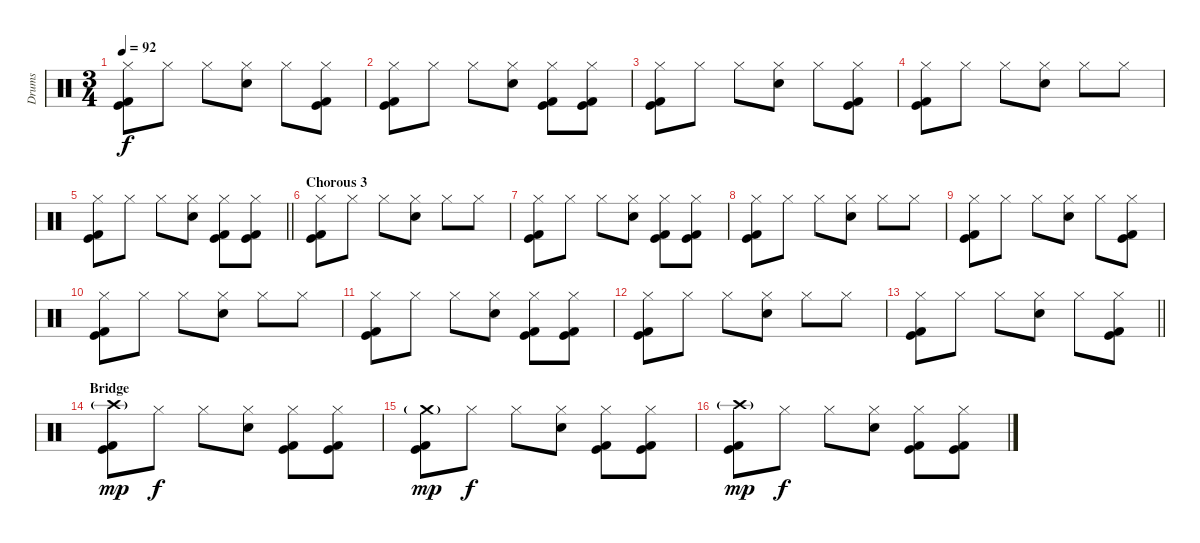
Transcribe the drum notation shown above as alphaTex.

\track ("Drums" "Drums") {instrument percussion}
\staff {score}
\articulation defaults
\ts (3 4)
\tempo 92
\clef neutral
\ks c
("Hi-Hat (closed)" "Kick (hit)" "Kick (hit) 2").8{dy f} "Hi-Hat (closed)".8 "Hi-Hat (closed)".8 ("Hi-Hat (closed)" "Electric Snare (hit)").8 "Hi-Hat (closed)".8 ("Hi-Hat (closed)" "Kick (hit)" "Kick (hit) 2").8 |
("Hi-Hat (closed)" "Kick (hit)" "Kick (hit) 2").8 "Hi-Hat (closed)".8 "Hi-Hat (closed)".8 ("Hi-Hat (closed)" "Electric Snare (hit)").8 ("Hi-Hat (closed)" "Kick (hit)" "Kick (hit) 2").8 ("Hi-Hat (closed)" "Kick (hit)" "Kick (hit) 2").8 |
("Hi-Hat (closed)" "Kick (hit)" "Kick (hit) 2").8 "Hi-Hat (closed)".8 "Hi-Hat (closed)".8 ("Hi-Hat (closed)" "Electric Snare (hit)").8 "Hi-Hat (closed)".8 ("Hi-Hat (closed)" "Kick (hit)" "Kick (hit) 2").8 |
("Hi-Hat (closed)" "Kick (hit)" "Kick (hit) 2").8 "Hi-Hat (closed)".8 "Hi-Hat (closed)".8 ("Hi-Hat (closed)" "Electric Snare (hit)").8 "Hi-Hat (closed)".8 "Hi-Hat (closed)".8 |
\barLineRight lightlight
("Hi-Hat (closed)" "Kick (hit)" "Kick (hit) 2").8 "Hi-Hat (closed)".8 "Hi-Hat (closed)".8 ("Hi-Hat (closed)" "Electric Snare (hit)").8 ("Hi-Hat (closed)" "Kick (hit)" "Kick (hit) 2").8 ("Hi-Hat (closed)" "Kick (hit)" "Kick (hit) 2").8 |
\section ("" "Chorous 3")
("Hi-Hat (closed)" "Kick (hit)" "Kick (hit) 2").8 "Hi-Hat (closed)".8 "Hi-Hat (closed)".8 ("Hi-Hat (closed)" "Electric Snare (hit)").8 "Hi-Hat (closed)".8 "Hi-Hat (closed)".8 |
("Hi-Hat (closed)" "Kick (hit)" "Kick (hit) 2").8 "Hi-Hat (closed)".8 "Hi-Hat (closed)".8 ("Hi-Hat (closed)" "Electric Snare (hit)").8 ("Hi-Hat (closed)" "Kick (hit)" "Kick (hit) 2").8 ("Hi-Hat (closed)" "Kick (hit)" "Kick (hit) 2").8 |
("Hi-Hat (closed)" "Kick (hit)" "Kick (hit) 2").8 "Hi-Hat (closed)".8 "Hi-Hat (closed)".8 ("Hi-Hat (closed)" "Electric Snare (hit)").8 "Hi-Hat (closed)".8 "Hi-Hat (closed)".8 |
("Hi-Hat (closed)" "Kick (hit)" "Kick (hit) 2").8 "Hi-Hat (closed)".8 "Hi-Hat (closed)".8 ("Hi-Hat (closed)" "Electric Snare (hit)").8 "Hi-Hat (closed)".8 ("Hi-Hat (closed)" "Kick (hit)" "Kick (hit) 2").8 |
("Hi-Hat (closed)" "Kick (hit)" "Kick (hit) 2").8 "Hi-Hat (closed)".8 "Hi-Hat (closed)".8 ("Hi-Hat (closed)" "Electric Snare (hit)").8 "Hi-Hat (closed)".8 "Hi-Hat (closed)".8 |
("Hi-Hat (closed)" "Kick (hit)" "Kick (hit) 2").8 "Hi-Hat (closed)".8 "Hi-Hat (closed)".8 ("Hi-Hat (closed)" "Electric Snare (hit)").8 ("Hi-Hat (closed)" "Kick (hit)" "Kick (hit) 2").8 ("Hi-Hat (closed)" "Kick (hit)" "Kick (hit) 2").8 |
("Hi-Hat (closed)" "Kick (hit)" "Kick (hit) 2").8 "Hi-Hat (closed)".8 "Hi-Hat (closed)".8 ("Hi-Hat (closed)" "Electric Snare (hit)").8 "Hi-Hat (closed)".8 "Hi-Hat (closed)".8 |
\barLineRight lightlight
("Hi-Hat (closed)" "Kick (hit)" "Kick (hit) 2").8 "Hi-Hat (closed)".8 "Hi-Hat (closed)".8 ("Hi-Hat (closed)" "Electric Snare (hit)").8 "Hi-Hat (closed)".8 ("Hi-Hat (closed)" "Kick (hit)" "Kick (hit) 2").8 |
\section ("" "Bridge")
("Crash high (hit)"{g} "Kick (hit)" "Kick (hit) 2").8{dy mp} "Hi-Hat (closed)".8{dy f} "Hi-Hat (closed)".8 ("Hi-Hat (closed)" "Electric Snare (hit)").8 ("Hi-Hat (closed)" "Kick (hit)" "Kick (hit) 2").8 ("Hi-Hat (closed)" "Kick (hit)" "Kick (hit) 2").8 |
("Crash medium (hit)"{g} "Kick (hit)" "Kick (hit) 2").8{dy mp} "Hi-Hat (closed)".8{dy f} "Hi-Hat (closed)".8 ("Hi-Hat (closed)" "Electric Snare (hit)").8 ("Hi-Hat (closed)" "Kick (hit)" "Kick (hit) 2").8 ("Hi-Hat (closed)" "Kick (hit)" "Kick (hit) 2").8 |
("Crash high (hit)"{g} "Kick (hit)" "Kick (hit) 2").8{dy mp} "Hi-Hat (closed)".8{dy f} "Hi-Hat (closed)".8 ("Hi-Hat (closed)" "Electric Snare (hit)").8 ("Hi-Hat (closed)" "Kick (hit)" "Kick (hit) 2").8 ("Hi-Hat (closed)" "Kick (hit)" "Kick (hit) 2").8
